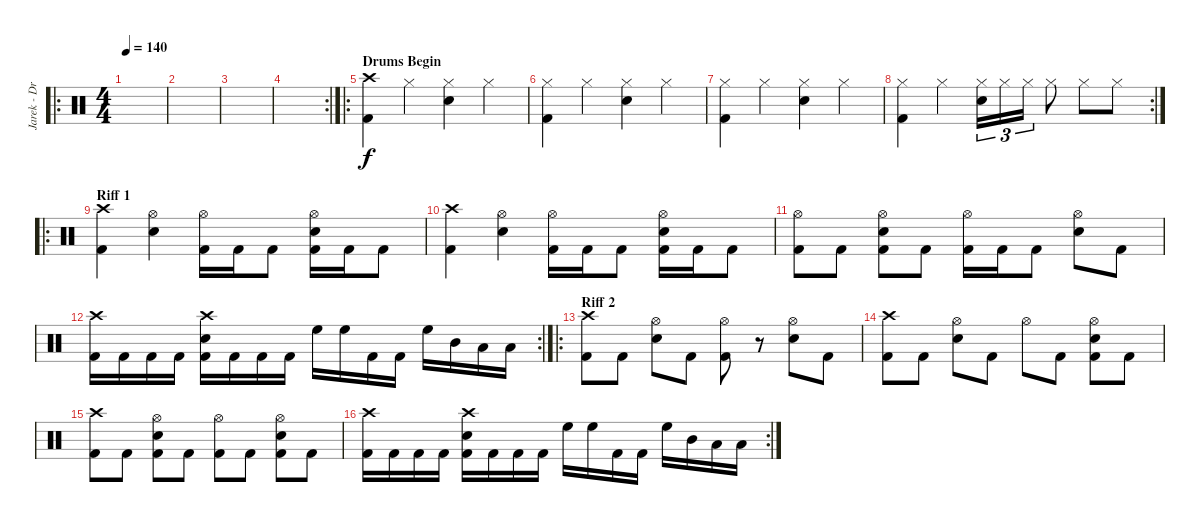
\track ("Jarek - Drums" "Jarek - Dr") {instrument percussion}
\staff {score}
\articulation defaults
\ro
\ts (4 4)
\tempo 140
\clef neutral
\ks c
|
|
|
\rc 2
|
\ro
\section ("" "Drums Begin")
("Crash high (hit)" "Kick (hit) 2").4 "Hi-Hat (closed)".4 ("Hi-Hat (closed)" "Snare (hit) 2").4 "Hi-Hat (closed)".4 |
("Hi-Hat (closed)" "Kick (hit) 2").4 "Hi-Hat (closed)".4 ("Hi-Hat (closed)" "Snare (hit) 2").4 "Hi-Hat (closed)".4 |
("Hi-Hat (closed)" "Kick (hit) 2").4 "Hi-Hat (closed)".4 ("Hi-Hat (closed)" "Snare (hit) 2").4 "Hi-Hat (closed)".4 |
\rc 2
("Hi-Hat (closed)" "Kick (hit) 2").4 "Hi-Hat (closed)".4 ("Hi-Hat (closed)" "Snare (hit) 2").16{tu (3 2)} "Hi-Hat (closed)".16{tu (3 2)} "Hi-Hat (closed)".16{tu (3 2)} "Hi-Hat (closed)".8 "Hi-Hat (closed)".8 "Hi-Hat (closed)".8 |
\ro
\section ("" "Riff 1")
("Crash high (hit)" "Kick (hit) 2").4 ("Hi-Hat (open)" "Snare (hit) 2").4 ("Hi-Hat (open)" "Kick (hit) 2").16 "Kick (hit) 2".16 "Kick (hit) 2".8 ("Hi-Hat (open)" "Snare (hit) 2" "Kick (hit) 2").16 "Kick (hit) 2".16 "Kick (hit) 2".8 |
("Crash high (hit)" "Kick (hit) 2").4 ("Hi-Hat (open)" "Snare (hit) 2").4 ("Hi-Hat (open)" "Kick (hit) 2").16 "Kick (hit) 2".16 "Kick (hit) 2".8 ("Hi-Hat (open)" "Snare (hit) 2" "Kick (hit) 2").16 "Kick (hit) 2".16 "Kick (hit) 2".8 |
("Hi-Hat (open)" "Kick (hit) 2").8 "Kick (hit) 2".8 ("Hi-Hat (open)" "Snare (hit) 2" "Kick (hit) 2").8 "Kick (hit) 2".8 ("Hi-Hat (open)" "Kick (hit) 2").16 "Kick (hit) 2".16 "Kick (hit) 2".8 ("Hi-Hat (open)" "Snare (hit) 2").8 "Kick (hit) 2".8 |
\rc 2
("Crash high (hit)" "Kick (hit) 2").16 "Kick (hit) 2".16 "Kick (hit) 2".16 "Kick (hit) 2".16 ("Crash high (hit)" "Snare (hit) 2" "Kick (hit) 2").16 "Kick (hit) 2".16 "Kick (hit) 2".16 "Kick (hit) 2".16 "High Floor Tom (hit)".16 "High Floor Tom (hit)".16 "Kick (hit) 2".16 "Kick (hit) 2".16 "High Floor Tom (hit)".16 "Mid Tom (hit)".16 "Low Tom (hit)".16 "Low Floor Tom (hit)".16 |
\ro
\section ("" "Riff 2")
("Crash high (hit)" "Kick (hit) 2").8 "Kick (hit) 2".8 ("Hi-Hat (open)" "Snare (hit) 2").8 "Kick (hit) 2".8 ("Hi-Hat (open)" "Kick (hit) 2").8 r.8 ("Hi-Hat (open)" "Snare (hit) 2").8 "Kick (hit) 2".8 |
("Crash high (hit)" "Kick (hit) 2").8 "Kick (hit) 2".8 ("Hi-Hat (open)" "Snare (hit) 2").8 "Kick (hit) 2".8 "Hi-Hat (open)".8 "Kick (hit) 2".8 ("Hi-Hat (open)" "Snare (hit) 2" "Kick (hit) 2").8 "Kick (hit) 2".8 |
("Crash high (hit)" "Kick (hit) 2").8 "Kick (hit) 2".8 ("Hi-Hat (open)" "Snare (hit) 2" "Kick (hit) 2").8 "Kick (hit) 2".8 ("Hi-Hat (open)" "Kick (hit) 2").8 "Kick (hit) 2".8 ("Hi-Hat (open)" "Snare (hit) 2" "Kick (hit) 2").8 "Kick (hit) 2".8 |
\rc 2
("Crash high (hit)" "Kick (hit) 2").16 "Kick (hit) 2".16 "Kick (hit) 2".16 "Kick (hit) 2".16 ("Crash high (hit)" "Snare (hit) 2" "Kick (hit) 2").16 "Kick (hit) 2".16 "Kick (hit) 2".16 "Kick (hit) 2".16 "High Floor Tom (hit)".16 "High Floor Tom (hit)".16 "Kick (hit) 2".16 "Kick (hit) 2".16 "High Floor Tom (hit)".16 "Mid Tom (hit)".16 "Low Tom (hit)".16 "Low Floor Tom (hit)".16
